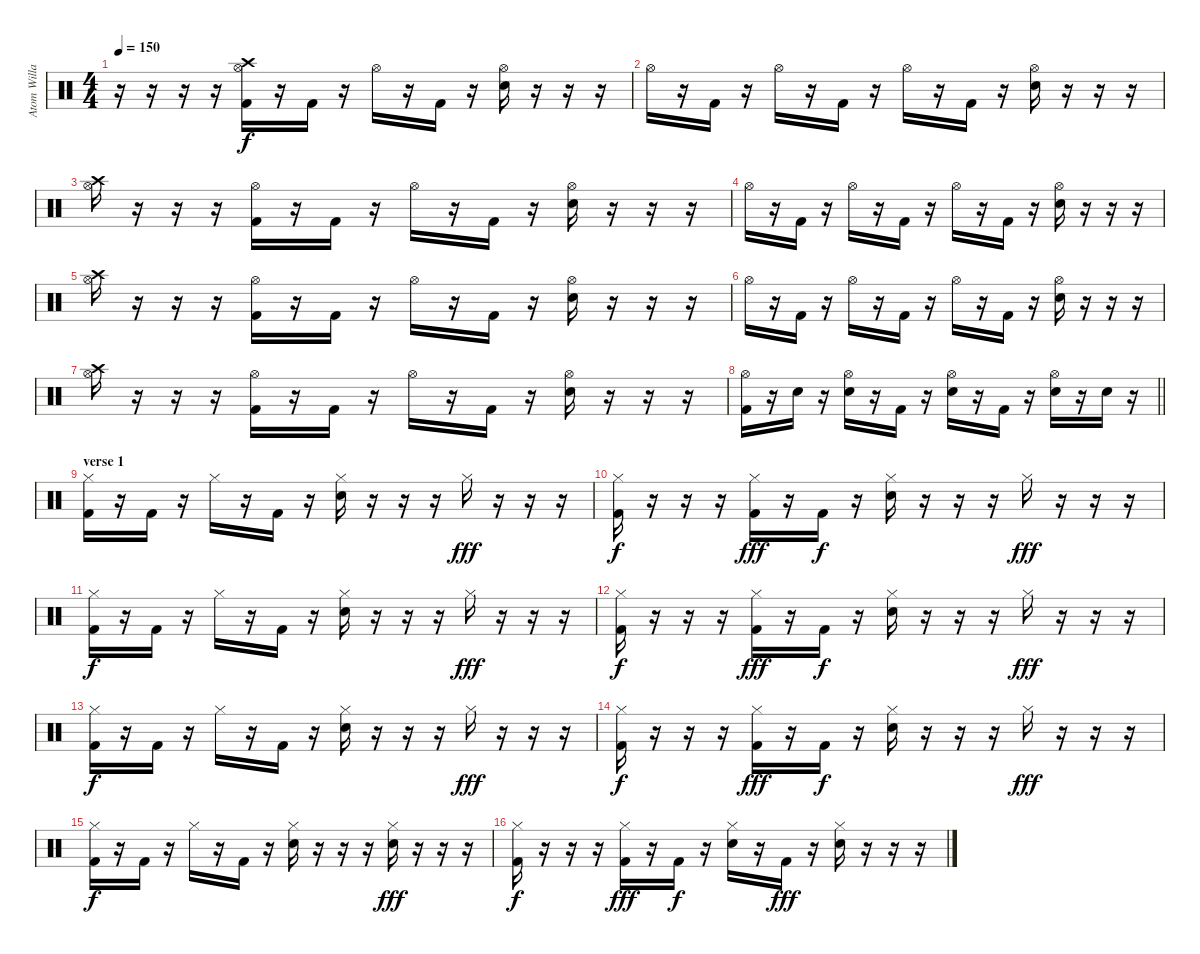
\track ("Atom Willard, drums" "Atom Willa") {instrument percussion}
\staff {score}
\articulation defaults
\ts (4 4)
\tempo 150
\clef neutral
\ks c
r.16{dy f} r.16 r.16 r.16 ("Crash high (hit)" "Hi-Hat (open)" "Kick (hit) 2").16 r.16 "Kick (hit) 2".16 r.16 "Hi-Hat (open)".16 r.16 "Kick (hit) 2".16 r.16 ("Hi-Hat (open)" "Electric Snare (hit)").16 r.16 r.16 r.16 |
"Hi-Hat (open)".16 r.16 "Kick (hit) 2".16 r.16 "Hi-Hat (open)".16 r.16 "Kick (hit) 2".16 r.16 "Hi-Hat (open)".16 r.16 "Kick (hit) 2".16 r.16 ("Hi-Hat (open)" "Electric Snare (hit)").16 r.16 r.16 r.16 |
("Crash high (hit)" "Hi-Hat (open)").16 r.16 r.16 r.16 ("Hi-Hat (open)" "Kick (hit) 2").16 r.16 "Kick (hit) 2".16 r.16 "Hi-Hat (open)".16 r.16 "Kick (hit) 2".16 r.16 ("Hi-Hat (open)" "Electric Snare (hit)").16 r.16 r.16 r.16 |
"Hi-Hat (open)".16 r.16 "Kick (hit) 2".16 r.16 "Hi-Hat (open)".16 r.16 "Kick (hit) 2".16 r.16 "Hi-Hat (open)".16 r.16 "Kick (hit) 2".16 r.16 ("Hi-Hat (open)" "Electric Snare (hit)").16 r.16 r.16 r.16 |
("Crash high (hit)" "Hi-Hat (open)").16 r.16 r.16 r.16 ("Hi-Hat (open)" "Kick (hit) 2").16 r.16 "Kick (hit) 2".16 r.16 "Hi-Hat (open)".16 r.16 "Kick (hit) 2".16 r.16 ("Hi-Hat (open)" "Electric Snare (hit)").16 r.16 r.16 r.16 |
"Hi-Hat (open)".16 r.16 "Kick (hit) 2".16 r.16 "Hi-Hat (open)".16 r.16 "Kick (hit) 2".16 r.16 "Hi-Hat (open)".16 r.16 "Kick (hit) 2".16 r.16 ("Hi-Hat (open)" "Electric Snare (hit)").16 r.16 r.16 r.16 |
("Crash high (hit)" "Hi-Hat (open)").16 r.16 r.16 r.16 ("Hi-Hat (open)" "Kick (hit) 2").16 r.16 "Kick (hit) 2".16 r.16 "Hi-Hat (open)".16 r.16 "Kick (hit) 2".16 r.16 ("Hi-Hat (open)" "Electric Snare (hit)").16 r.16 r.16 r.16 |
\barLineRight lightlight
("Hi-Hat (open)" "Kick (hit) 2").16 r.16 "Electric Snare (hit)".16 r.16 ("Hi-Hat (open)" "Electric Snare (hit)").16 r.16 "Kick (hit) 2".16 r.16 ("Hi-Hat (open)" "Electric Snare (hit)").16 r.16 "Kick (hit) 2".16 r.16 ("Hi-Hat (open)" "Electric Snare (hit)").16 r.16 "Electric Snare (hit)".16 r.16 |
\section ("" "verse 1")
("Hi-Hat (closed)" "Kick (hit) 2").16 r.16 "Kick (hit) 2".16 r.16 "Hi-Hat (closed)".16 r.16 "Kick (hit) 2".16 r.16 ("Hi-Hat (closed)" "Electric Snare (hit)").16 r.16 r.16 r.16 "Hi-Hat (closed)".16{dy fff} r.16 r.16 r.16 |
("Hi-Hat (closed)" "Kick (hit) 2").16{dy f} r.16 r.16 r.16 ("Hi-Hat (closed)" "Kick (hit) 2").16{dy fff} r.16 "Kick (hit) 2".16{dy f} r.16 ("Hi-Hat (closed)" "Electric Snare (hit)").16 r.16 r.16 r.16 "Hi-Hat (closed)".16{dy fff} r.16 r.16 r.16 |
("Hi-Hat (closed)" "Kick (hit) 2").16{dy f} r.16 "Kick (hit) 2".16 r.16 "Hi-Hat (closed)".16 r.16 "Kick (hit) 2".16 r.16 ("Hi-Hat (closed)" "Electric Snare (hit)").16 r.16 r.16 r.16 "Hi-Hat (closed)".16{dy fff} r.16 r.16 r.16 |
("Hi-Hat (closed)" "Kick (hit) 2").16{dy f} r.16 r.16 r.16 ("Hi-Hat (closed)" "Kick (hit) 2").16{dy fff} r.16 "Kick (hit) 2".16{dy f} r.16 ("Hi-Hat (closed)" "Electric Snare (hit)").16 r.16 r.16 r.16 "Hi-Hat (closed)".16{dy fff} r.16 r.16 r.16 |
("Hi-Hat (closed)" "Kick (hit) 2").16{dy f} r.16 "Kick (hit) 2".16 r.16 "Hi-Hat (closed)".16 r.16 "Kick (hit) 2".16 r.16 ("Hi-Hat (closed)" "Electric Snare (hit)").16 r.16 r.16 r.16 "Hi-Hat (closed)".16{dy fff} r.16 r.16 r.16 |
("Hi-Hat (closed)" "Kick (hit) 2").16{dy f} r.16 r.16 r.16 ("Hi-Hat (closed)" "Kick (hit) 2").16{dy fff} r.16 "Kick (hit) 2".16{dy f} r.16 ("Hi-Hat (closed)" "Electric Snare (hit)").16 r.16 r.16 r.16 "Hi-Hat (closed)".16{dy fff} r.16 r.16 r.16 |
("Hi-Hat (closed)" "Kick (hit) 2").16{dy f} r.16 "Kick (hit) 2".16 r.16 "Hi-Hat (closed)".16 r.16 "Kick (hit) 2".16 r.16 ("Hi-Hat (closed)" "Electric Snare (hit)").16 r.16 r.16 r.16 ("Hi-Hat (closed)" "Electric Snare (hit)").16{dy fff} r.16 r.16 r.16 |
("Hi-Hat (closed)" "Kick (hit) 2").16{dy f} r.16 r.16 r.16 ("Hi-Hat (closed)" "Kick (hit) 2").16{dy fff} r.16 "Kick (hit) 2".16{dy f} r.16 ("Hi-Hat (closed)" "Electric Snare (hit)").16 r.16 "Kick (hit) 2".16{dy fff} r.16 ("Hi-Hat (closed)" "Electric Snare (hit)").16 r.16 r.16 r.16
